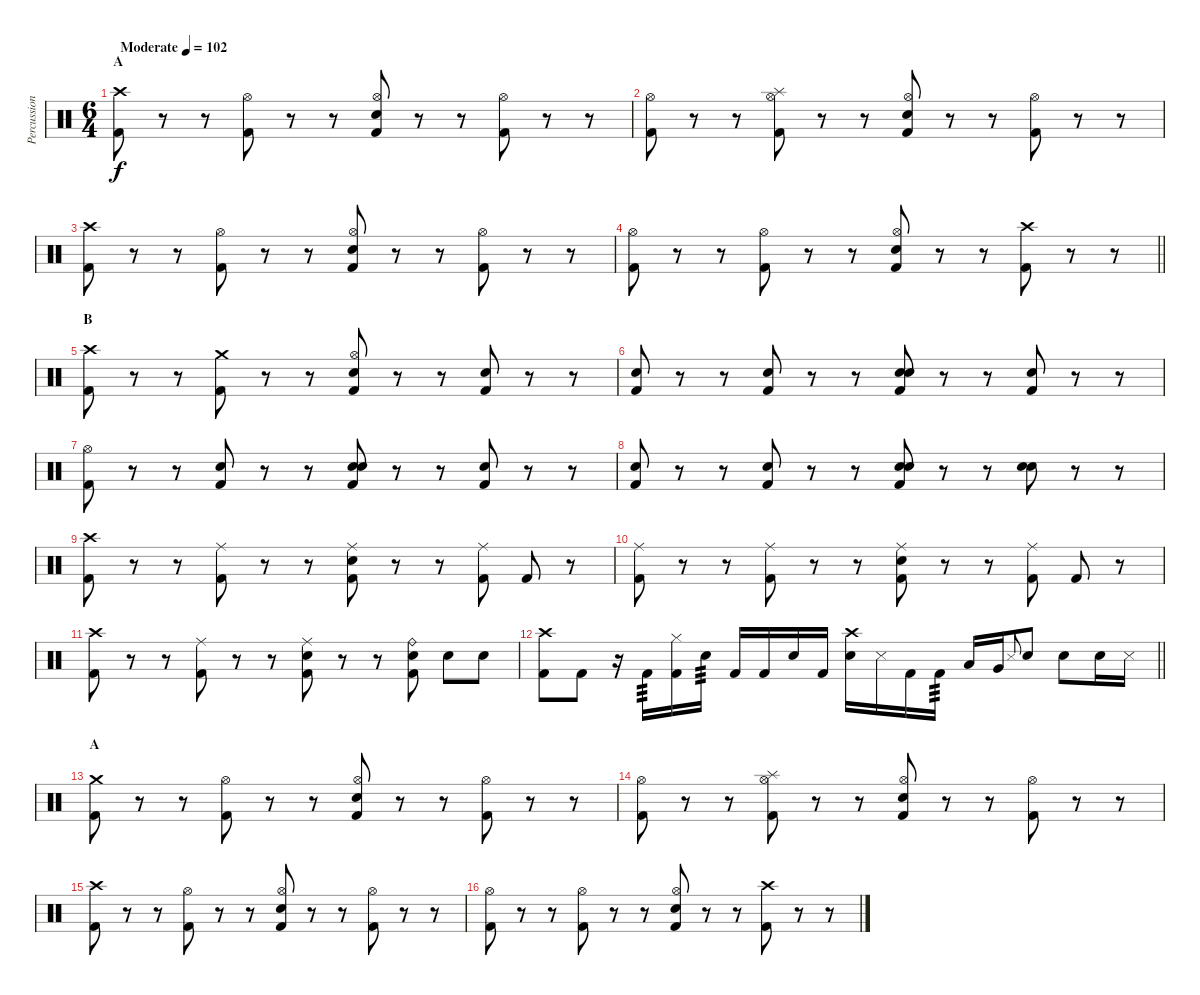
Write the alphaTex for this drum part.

\track ("Percussion" "Percussion") {instrument percussion}
\staff {score}
\articulation defaults
\ts (6 4)
\section ("" "A")
\tempo (102 "Moderate")
\clef neutral
\ks c
("Crash high (hit)" "Kick (hit) 2").8{dy f} r.8 r.8 ("Hi-Hat (open)" "Kick (hit) 2").8 r.8 r.8 ("Hi-Hat (open)" "Snare (hit) 2" "Kick (hit) 2").8 r.8 r.8 ("Hi-Hat (open)" "Kick (hit) 2").8 r.8 r.8 |
("Hi-Hat (open)" "Kick (hit) 2").8 r.8 r.8 ("Hi-Hat (open)" "Splash (hit)" "Kick (hit) 2").8 r.8 r.8 ("Hi-Hat (open)" "Snare (hit) 2" "Kick (hit) 2").8 r.8 r.8 ("Hi-Hat (open)" "Kick (hit) 2").8 r.8 r.8 |
("Crash high (hit)" "Kick (hit) 2").8 r.8 r.8 ("Hi-Hat (open)" "Kick (hit) 2").8 r.8 r.8 ("Hi-Hat (open)" "Snare (hit) 2" "Kick (hit) 2").8 r.8 r.8 ("Hi-Hat (open)" "Kick (hit) 2").8 r.8 r.8 |
\barLineRight lightlight
("Hi-Hat (open)" "Kick (hit) 2").8 r.8 r.8 ("Hi-Hat (open)" "Kick (hit) 2").8 r.8 r.8 ("Hi-Hat (open)" "Snare (hit) 2" "Kick (hit) 2").8 r.8 r.8 ("Crash high (hit)" "Kick (hit) 2").8 r.8 r.8 |
\section ("" "B")
("Crash high (hit)" "Kick (hit) 2").8 r.8 r.8 ("Crash medium (hit)" "Kick (hit) 2").8 r.8 r.8 ("Hi-Hat (open)" "Snare (hit) 2" "Kick (hit) 2").8 r.8 r.8 ("Snare (hit)" "Kick (hit) 2").8 r.8 r.8 |
("Snare (hit)" "Kick (hit) 2").8 r.8 r.8 ("Snare (hit)" "Kick (hit) 2").8 r.8 r.8 ("Snare (hit)" "Snare (hit) 2" "Kick (hit) 2").8 r.8 r.8 ("Snare (hit)" "Kick (hit) 2").8 r.8 r.8 |
("Hi-Hat (open)" "Kick (hit) 2").8 r.8 r.8 ("Snare (hit)" "Kick (hit) 2").8 r.8 r.8 ("Snare (hit)" "Snare (hit) 2" "Kick (hit) 2").8 r.8 r.8 ("Snare (hit)" "Kick (hit) 2").8 r.8 r.8 |
("Snare (hit)" "Kick (hit) 2").8 r.8 r.8 ("Snare (hit)" "Kick (hit) 2").8 r.8 r.8 ("Snare (hit)" "Snare (hit) 2" "Kick (hit) 2").8 r.8 r.8 ("Snare (hit)" "Snare (hit) 2").8 r.8 r.8 |
("Crash high (hit)" "Kick (hit) 2").8 r.8 r.8 ("Ride (middle)" "Kick (hit) 2").8 r.8 r.8 ("Ride (middle)" "Snare (hit) 2" "Kick (hit) 2").8 r.8 r.8 ("Ride (middle)" "Kick (hit) 2").8 "Kick (hit) 2".8 r.8 |
("Ride (middle)" "Kick (hit) 2").8 r.8 r.8 ("Ride (middle)" "Kick (hit) 2").8 r.8 r.8 ("Ride (middle)" "Snare (hit) 2" "Kick (hit) 2").8 r.8 r.8 ("Ride (middle)" "Kick (hit) 2").8 "Kick (hit) 2".8 r.8 |
("Crash high (hit)" "Kick (hit) 2").8 r.8 r.8 ("Ride (middle)" "Kick (hit) 2").8 r.8 r.8 ("Ride (middle)" "Snare (hit) 2" "Kick (hit) 2").8 r.8 r.8 ("Ride (bell)" "Snare (hit) 2" "Kick (hit) 2").8 "Snare (hit) 2".8 "Snare (hit)".8 |
\barLineRight lightlight
("Crash high (hit)" "Kick (hit) 2").8 "Kick (hit) 2".8 r.16 "Kick (hit) 2".16{tp 3} ("Hi-Hat (closed)" "Kick (hit) 2").16 "Snare (hit) 2".16{tp 3} "Kick (hit) 2".16 "Kick (hit) 2".16 "Snare (hit) 2".16 "Kick (hit) 2".16 ("Crash high (hit)" "Snare (hit) 2").16 "Metronome (hit)".16 "Kick (hit) 2".16 "Kick (hit) 2".16{tp 3} "Low Tom (hit)".16 "Very Low Tom (hit)".16 "Metronome (hit)".8{gr onbeat} "Snare (hit) 2".8 "Snare (hit) 2".8 "Snare (hit) 2".16 "Metronome (hit)".16 |
\section ("" "A")
("Crash medium (hit)" "Kick (hit) 2").8 r.8 r.8 ("Hi-Hat (open)" "Kick (hit) 2").8 r.8 r.8 ("Hi-Hat (open)" "Snare (hit) 2" "Kick (hit) 2").8 r.8 r.8 ("Hi-Hat (open)" "Kick (hit) 2").8 r.8 r.8 |
("Hi-Hat (open)" "Kick (hit) 2").8 r.8 r.8 ("Hi-Hat (open)" "Splash (hit)" "Kick (hit) 2").8 r.8 r.8 ("Hi-Hat (open)" "Snare (hit) 2" "Kick (hit) 2").8 r.8 r.8 ("Hi-Hat (open)" "Kick (hit) 2").8 r.8 r.8 |
("Crash high (hit)" "Kick (hit) 2").8 r.8 r.8 ("Hi-Hat (open)" "Kick (hit) 2").8 r.8 r.8 ("Hi-Hat (open)" "Snare (hit) 2" "Kick (hit) 2").8 r.8 r.8 ("Hi-Hat (open)" "Kick (hit) 2").8 r.8 r.8 |
("Hi-Hat (open)" "Kick (hit) 2").8 r.8 r.8 ("Hi-Hat (open)" "Kick (hit) 2").8 r.8 r.8 ("Hi-Hat (open)" "Snare (hit) 2" "Kick (hit) 2").8 r.8 r.8 ("Crash high (hit)" "Kick (hit) 2").8 r.8 r.8
